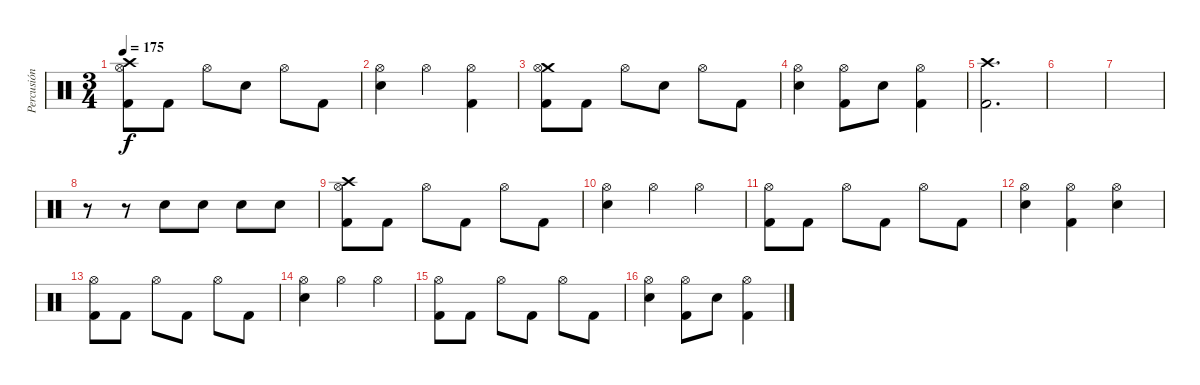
\track ("Percusión" "Percusión") {instrument percussion}
\staff {score}
\articulation defaults
\ts (3 4)
\tempo 175
\clef neutral
\ks c
("Crash high (hit)" "Hi-Hat (open)" "Kick (hit) 2").8{dy f} "Kick (hit) 2".8 "Hi-Hat (open)".8 "Snare (hit) 2".8 "Hi-Hat (open)".8 "Kick (hit) 2".8 |
("Hi-Hat (open)" "Snare (hit) 2").4 "Hi-Hat (open)".4 ("Hi-Hat (open)" "Kick (hit) 2").4 |
("Crash medium (hit)" "Hi-Hat (open)" "Kick (hit) 2").8 "Kick (hit) 2".8 "Hi-Hat (open)".8 "Snare (hit) 2".8 "Hi-Hat (open)".8 "Kick (hit) 2".8 |
("Hi-Hat (open)" "Snare (hit) 2").4 ("Hi-Hat (open)" "Kick (hit) 2").8 "Snare (hit) 2".8 ("Hi-Hat (open)" "Kick (hit) 2").4 |
("Crash high (hit)" "Kick (hit) 2").2{d} |
|
|
r.8 r.8 "Snare (hit) 2".8 "Snare (hit) 2".8 "Snare (hit) 2".8 "Snare (hit) 2".8 |
("Crash high (hit)" "Hi-Hat (open)" "Kick (hit) 2").8 "Kick (hit) 2".8 "Hi-Hat (open)".8 "Kick (hit) 2".8 "Hi-Hat (open)".8 "Kick (hit) 2".8 |
("Hi-Hat (open)" "Snare (hit) 2").4 "Hi-Hat (open)".4 "Hi-Hat (open)".4 |
("Hi-Hat (open)" "Kick (hit) 2").8 "Kick (hit) 2".8 "Hi-Hat (open)".8 "Kick (hit) 2".8 "Hi-Hat (open)".8 "Kick (hit) 2".8 |
("Hi-Hat (open)" "Snare (hit) 2").4 ("Hi-Hat (open)" "Kick (hit) 2").4 ("Hi-Hat (open)" "Snare (hit) 2").4 |
("Hi-Hat (open)" "Kick (hit) 2").8 "Kick (hit) 2".8 "Hi-Hat (open)".8 "Kick (hit) 2".8 "Hi-Hat (open)".8 "Kick (hit) 2".8 |
("Hi-Hat (open)" "Snare (hit) 2").4 "Hi-Hat (open)".4 "Hi-Hat (open)".4 |
("Hi-Hat (open)" "Kick (hit) 2").8 "Kick (hit) 2".8 "Hi-Hat (open)".8 "Kick (hit) 2".8 "Hi-Hat (open)".8 "Kick (hit) 2".8 |
("Hi-Hat (open)" "Snare (hit) 2").4 ("Hi-Hat (open)" "Kick (hit) 2").8 "Snare (hit) 2".8 ("Hi-Hat (open)" "Kick (hit) 2").4
